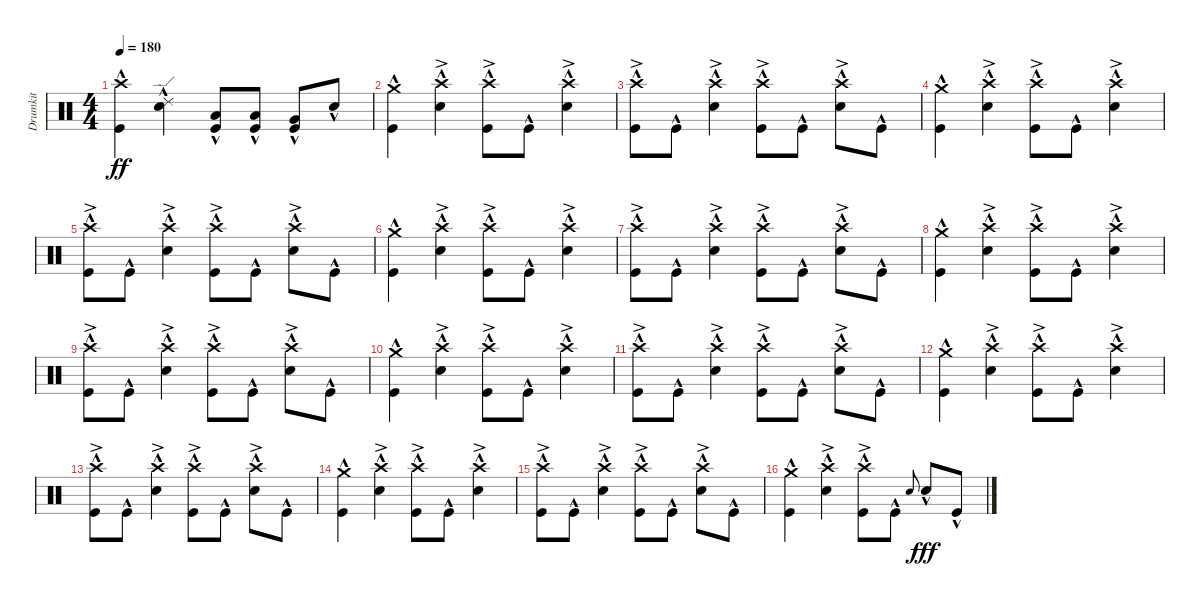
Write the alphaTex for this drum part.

\track ("Drumkit" "Drumkit") {instrument percussion}
\staff {score}
\articulation defaults
\ts (4 4)
\tempo 180
\clef neutral
\ks c
("Kick (hit)"{hac} "Crash high (hit)"{hac}).4{dy ff} ("Snare (hit) 2"{hac} "Ride (edge) 2").4 ("Low Tom (hit)"{hac} "Kick (hit)"{hac}).8 ("Low Tom (hit)"{hac} "Kick (hit)"{hac}).8 ("Very Low Tom (hit)"{hac} "Kick (hit)"{hac}).8 "Snare (hit) 2"{hac}.8 |
("Kick (hit)"{hac} "Crash medium (hit)"{hac}).4 ("Snare (hit) 2"{hac} "Crash high (hit)"{ac}).4 ("Kick (hit)"{hac} "Crash high (hit)"{ac}).8 "Kick (hit)"{hac}.8 ("Snare (hit) 2"{hac} "Crash high (hit)"{ac}).4 |
("Kick (hit)"{hac} "Crash high (hit)"{ac}).8 "Kick (hit)"{hac}.8 ("Snare (hit) 2"{hac} "Crash high (hit)"{ac}).4 ("Kick (hit)"{hac} "Crash high (hit)"{ac}).8 "Kick (hit)"{hac}.8 ("Snare (hit) 2"{hac} "Crash high (hit)"{ac}).8 "Kick (hit)"{hac}.8 |
("Kick (hit)"{hac} "Crash medium (hit)"{hac}).4 ("Snare (hit) 2"{hac} "Crash high (hit)"{ac}).4 ("Kick (hit)"{hac} "Crash high (hit)"{ac}).8 "Kick (hit)"{hac}.8 ("Snare (hit) 2"{hac} "Crash high (hit)"{ac}).4 |
("Kick (hit)"{hac} "Crash high (hit)"{ac}).8 "Kick (hit)"{hac}.8 ("Snare (hit) 2"{hac} "Crash high (hit)"{ac}).4 ("Kick (hit)"{hac} "Crash high (hit)"{ac}).8 "Kick (hit)"{hac}.8 ("Snare (hit) 2"{hac} "Crash high (hit)"{ac}).8 "Kick (hit)"{hac}.8 |
("Kick (hit)"{hac} "Crash medium (hit)"{hac}).4 ("Snare (hit) 2"{hac} "Crash high (hit)"{ac}).4 ("Kick (hit)"{hac} "Crash high (hit)"{ac}).8 "Kick (hit)"{hac}.8 ("Snare (hit) 2"{hac} "Crash high (hit)"{ac}).4 |
("Kick (hit)"{hac} "Crash high (hit)"{ac}).8 "Kick (hit)"{hac}.8 ("Snare (hit) 2"{hac} "Crash high (hit)"{ac}).4 ("Kick (hit)"{hac} "Crash high (hit)"{ac}).8 "Kick (hit)"{hac}.8 ("Snare (hit) 2"{hac} "Crash high (hit)"{ac}).8 "Kick (hit)"{hac}.8 |
("Kick (hit)"{hac} "Crash medium (hit)"{hac}).4 ("Snare (hit) 2"{hac} "Crash high (hit)"{ac}).4 ("Kick (hit)"{hac} "Crash high (hit)"{ac}).8 "Kick (hit)"{hac}.8 ("Snare (hit) 2"{hac} "Crash high (hit)"{ac}).4 |
("Kick (hit)"{hac} "Crash high (hit)"{ac}).8 "Kick (hit)"{hac}.8 ("Snare (hit) 2"{hac} "Crash high (hit)"{ac}).4 ("Kick (hit)"{hac} "Crash high (hit)"{ac}).8 "Kick (hit)"{hac}.8 ("Snare (hit) 2"{hac} "Crash high (hit)"{ac}).8 "Kick (hit)"{hac}.8 |
("Kick (hit)"{hac} "Crash medium (hit)"{hac}).4 ("Snare (hit) 2"{hac} "Crash high (hit)"{ac}).4 ("Kick (hit)"{hac} "Crash high (hit)"{ac}).8 "Kick (hit)"{hac}.8 ("Snare (hit) 2"{hac} "Crash high (hit)"{ac}).4 |
("Kick (hit)"{hac} "Crash high (hit)"{ac}).8 "Kick (hit)"{hac}.8 ("Snare (hit) 2"{hac} "Crash high (hit)"{ac}).4 ("Kick (hit)"{hac} "Crash high (hit)"{ac}).8 "Kick (hit)"{hac}.8 ("Snare (hit) 2"{hac} "Crash high (hit)"{ac}).8 "Kick (hit)"{hac}.8 |
("Kick (hit)"{hac} "Crash medium (hit)"{hac}).4 ("Snare (hit) 2"{hac} "Crash high (hit)"{ac}).4 ("Kick (hit)"{hac} "Crash high (hit)"{ac}).8 "Kick (hit)"{hac}.8 ("Snare (hit) 2"{hac} "Crash high (hit)"{ac}).4 |
("Kick (hit)"{hac} "Crash high (hit)"{ac}).8 "Kick (hit)"{hac}.8 ("Snare (hit) 2"{hac} "Crash high (hit)"{ac}).4 ("Kick (hit)"{hac} "Crash high (hit)"{ac}).8 "Kick (hit)"{hac}.8 ("Snare (hit) 2"{hac} "Crash high (hit)"{ac}).8 "Kick (hit)"{hac}.8 |
("Kick (hit)"{hac} "Crash medium (hit)"{hac}).4 ("Snare (hit) 2"{hac} "Crash high (hit)"{ac}).4 ("Kick (hit)"{hac} "Crash high (hit)"{ac}).8 "Kick (hit)"{hac}.8 ("Snare (hit) 2"{hac} "Crash high (hit)"{ac}).4 |
("Kick (hit)"{hac} "Crash high (hit)"{ac}).8 "Kick (hit)"{hac}.8 ("Snare (hit) 2"{hac} "Crash high (hit)"{ac}).4 ("Kick (hit)"{hac} "Crash high (hit)"{ac}).8 "Kick (hit)"{hac}.8 ("Snare (hit) 2"{hac} "Crash high (hit)"{ac}).8 "Kick (hit)"{hac}.8 |
("Kick (hit)"{hac} "Crash medium (hit)"{hac}).4 ("Snare (hit) 2"{hac} "Crash high (hit)"{ac}).4 ("Kick (hit)"{hac} "Crash high (hit)"{ac}).8 "Kick (hit)"{hac}.8 "Snare (hit)".8{gr onbeat} "Snare (hit) 2"{hac}.8{dy fff} "Kick (hit)"{hac}.8
